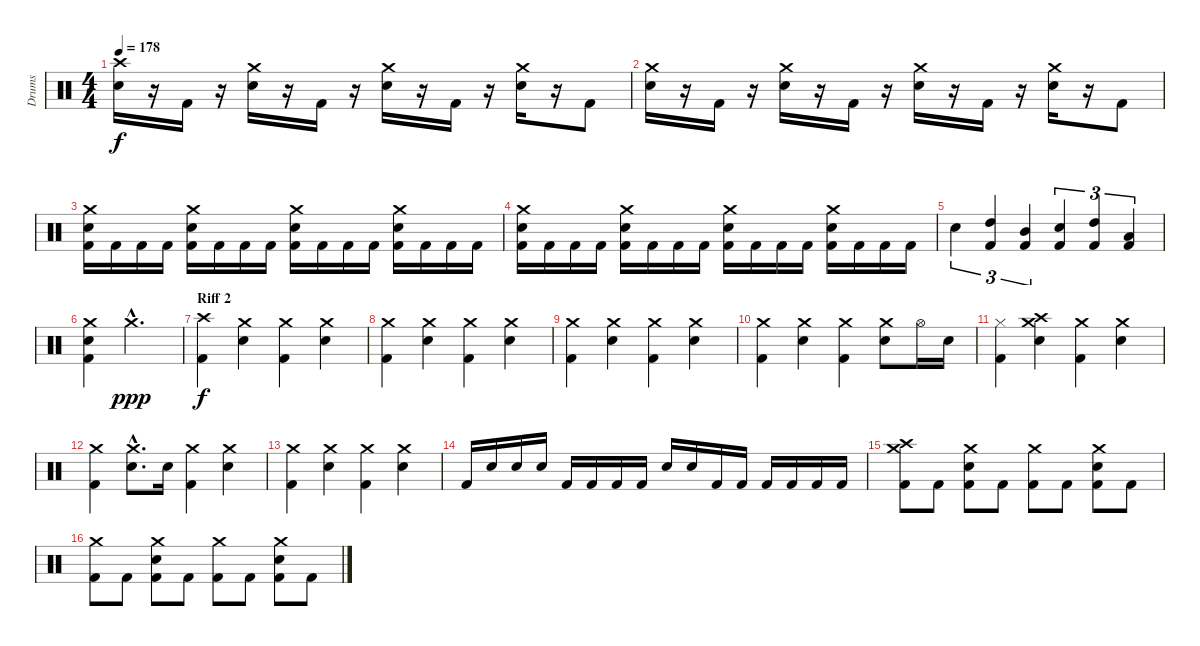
\track ("Drums" "Drums") {instrument percussion}
\staff {score}
\articulation defaults
\ts (4 4)
\tempo 178
\clef neutral
\ks c
("Crash high (hit)" "Electric Snare (hit)").16{dy f} r.16 "Kick (hit) 2".16 r.16 ("Crash medium (hit)" "Electric Snare (hit)").16 r.16 "Kick (hit) 2".16 r.16 ("Crash medium (hit)" "Electric Snare (hit)").16 r.16 "Kick (hit) 2".16 r.16 ("Crash medium (hit)" "Electric Snare (hit)").16 r.16 "Kick (hit) 2".8 |
("Crash medium (hit)" "Electric Snare (hit)").16 r.16 "Kick (hit) 2".16 r.16 ("Crash medium (hit)" "Electric Snare (hit)").16 r.16 "Kick (hit) 2".16 r.16 ("Crash medium (hit)" "Electric Snare (hit)").16 r.16 "Kick (hit) 2".16 r.16 ("Crash medium (hit)" "Electric Snare (hit)").16 r.16 "Kick (hit) 2".8 |
("Crash medium (hit)" "Electric Snare (hit)" "Kick (hit) 2").16 "Kick (hit) 2".16 "Kick (hit) 2".16 "Kick (hit) 2".16 ("Crash medium (hit)" "Electric Snare (hit)" "Kick (hit) 2").16 "Kick (hit) 2".16 "Kick (hit) 2".16 "Kick (hit) 2".16 ("Crash medium (hit)" "Electric Snare (hit)" "Kick (hit) 2").16 "Kick (hit) 2".16 "Kick (hit) 2".16 "Kick (hit) 2".16 ("Crash medium (hit)" "Electric Snare (hit)" "Kick (hit) 2").16 "Kick (hit) 2".16 "Kick (hit) 2".16 "Kick (hit) 2".16 |
("Crash medium (hit)" "Electric Snare (hit)" "Kick (hit) 2").16 "Kick (hit) 2".16 "Kick (hit) 2".16 "Kick (hit) 2".16 ("Crash medium (hit)" "Electric Snare (hit)" "Kick (hit) 2").16 "Kick (hit) 2".16 "Kick (hit) 2".16 "Kick (hit) 2".16 ("Crash medium (hit)" "Electric Snare (hit)" "Kick (hit) 2").16 "Kick (hit) 2".16 "Kick (hit) 2".16 "Kick (hit) 2".16 ("Crash medium (hit)" "Electric Snare (hit)" "Kick (hit) 2").16 "Kick (hit) 2".16 "Kick (hit) 2".16 "Kick (hit) 2".16 |
"Electric Snare (hit)".4{tu (3 2)} ("High Tom (hit)" "Kick (hit) 2").4{tu (3 2)} ("Mid Tom (hit)" "Kick (hit) 2").4{tu (3 2)} ("Electric Snare (hit)" "Kick (hit) 2").4{tu (3 2)} ("High Tom (hit)" "Kick (hit) 2").4{tu (3 2)} ("Low Tom (hit)" "Kick (hit) 2").4{tu (3 2)} |
("Crash medium (hit)" "Electric Snare (hit)" "Kick (hit) 2").4 "Crash medium (hit)"{hac}.2{d dy ppp} |
\section ("" "Riff 2")
("Crash high (hit)" "Kick (hit) 2").4{dy f} ("Crash medium (hit)" "Electric Snare (hit)").4 ("Crash medium (hit)" "Kick (hit) 2").4 ("Crash medium (hit)" "Electric Snare (hit)").4 |
("Crash medium (hit)" "Kick (hit) 2").4 ("Crash medium (hit)" "Electric Snare (hit)").4 ("Crash medium (hit)" "Kick (hit) 2").4 ("Crash medium (hit)" "Electric Snare (hit)").4 |
("Crash medium (hit)" "Kick (hit) 2").4 ("Crash medium (hit)" "Electric Snare (hit)").4 ("Crash medium (hit)" "Kick (hit) 2").4 ("Crash medium (hit)" "Electric Snare (hit)").4 |
("Crash medium (hit)" "Kick (hit) 2").4 ("Crash medium (hit)" "Electric Snare (hit)").4 ("Crash medium (hit)" "Kick (hit) 2").4 ("Crash medium (hit)" "Electric Snare (hit)").8 "Hi-Hat (open)".16 "Electric Snare (hit)".16 |
("Hi-Hat (closed)" "Kick (hit) 2").4 ("Crash high (hit)" "Crash medium (hit)" "Electric Snare (hit)").4 ("Crash medium (hit)" "Kick (hit) 2").4 ("Crash medium (hit)" "Electric Snare (hit)").4 |
("Crash medium (hit)" "Kick (hit) 2").4 ("Crash medium (hit)"{hac} "Electric Snare (hit)"{hac}).8{d} "Electric Snare (hit)".16 ("Crash medium (hit)" "Kick (hit) 2").4 ("Crash medium (hit)" "Electric Snare (hit)").4 |
("Crash medium (hit)" "Kick (hit) 2").4 ("Crash medium (hit)" "Electric Snare (hit)").4 ("Crash medium (hit)" "Kick (hit) 2").4 ("Crash medium (hit)" "Electric Snare (hit)").4 |
"Kick (hit) 2".16 "Electric Snare (hit)".16 "Electric Snare (hit)".16 "Electric Snare (hit)".16 "Kick (hit) 2".16 "Kick (hit) 2".16 "Kick (hit) 2".16 "Kick (hit) 2".16 "Electric Snare (hit)".16 "Electric Snare (hit)".16 "Kick (hit) 2".16 "Kick (hit) 2".16 "Kick (hit) 2".16 "Kick (hit) 2".16 "Kick (hit) 2".16 "Kick (hit) 2".16 |
("Crash high (hit)" "Crash medium (hit)" "Kick (hit) 2").8 "Kick (hit) 2".8 ("Crash medium (hit)" "Electric Snare (hit)" "Kick (hit) 2").8 "Kick (hit) 2".8 ("Crash medium (hit)" "Kick (hit) 2").8 "Kick (hit) 2".8 ("Crash medium (hit)" "Electric Snare (hit)" "Kick (hit) 2").8 "Kick (hit) 2".8 |
("Crash medium (hit)" "Kick (hit) 2").8 "Kick (hit) 2".8 ("Crash medium (hit)" "Electric Snare (hit)" "Kick (hit) 2").8 "Kick (hit) 2".8 ("Crash medium (hit)" "Kick (hit) 2").8 "Kick (hit) 2".8 ("Crash medium (hit)" "Electric Snare (hit)" "Kick (hit) 2").8 "Kick (hit) 2".8
